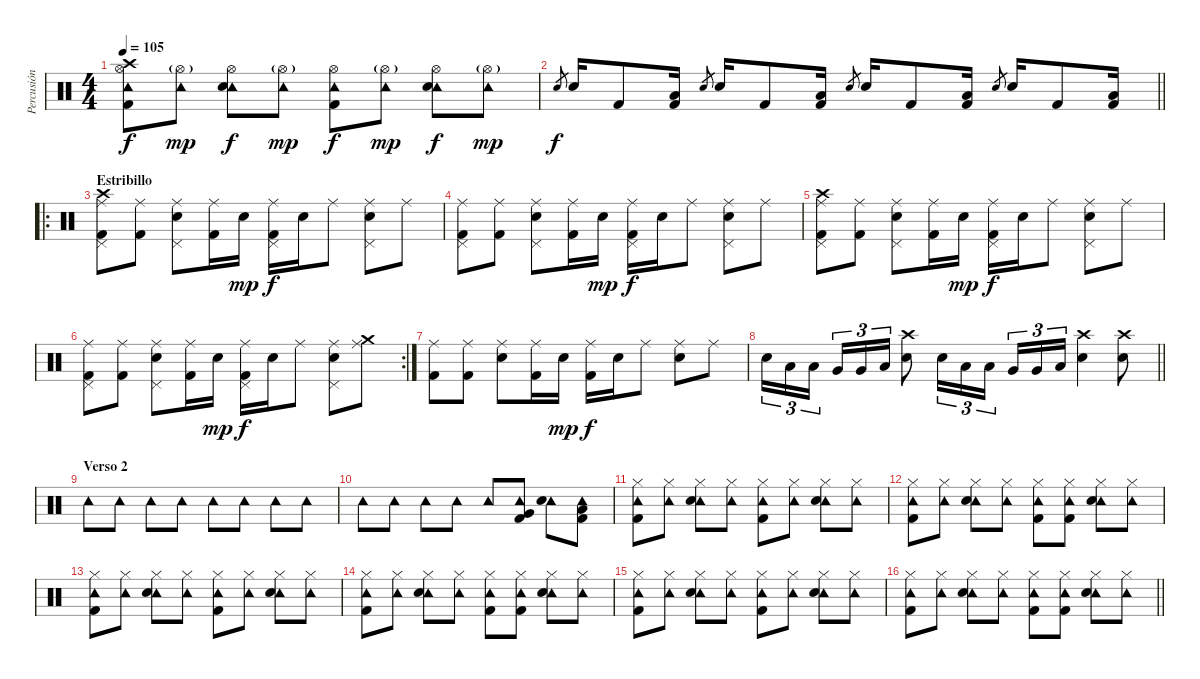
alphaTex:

\track ("Percusión" "Percusión") {instrument percussion}
\staff {score}
\articulation defaults
\ts (4 4)
\tempo 105
\clef neutral
\ks c
("Tambourine (hit)" "Crash high (hit)" "Hi-Hat (open)" "Kick (hit) 2").8{dy f} ("Tambourine (hit)" "Hi-Hat (open)"{g}).8{dy mp} ("Tambourine (hit)" "Hi-Hat (open)" "Electric Snare (hit)").8{dy f} ("Tambourine (hit)" "Hi-Hat (open)"{g}).8{dy mp} ("Tambourine (hit)" "Hi-Hat (open)" "Kick (hit) 2").8{dy f} ("Tambourine (hit)" "Hi-Hat (open)"{g}).8{dy mp} ("Tambourine (hit)" "Hi-Hat (open)" "Electric Snare (hit)").8{dy f} ("Tambourine (hit)" "Hi-Hat (open)"{g}).8{dy mp} |
\barLineRight lightlight "Electric Snare (hit)".8{gr dy f} "Electric Snare (hit)".16 "Kick (hit) 2".8
("Low Floor Tom (hit)" "Kick (hit) 2").16 "Electric Snare (hit)".8{gr} "Electric Snare (hit)".16 "Kick (hit) 2".8 ("Low Floor Tom (hit)" "Kick (hit) 2").16 "Electric Snare (hit)".8{gr} "Electric Snare (hit)".16 "Kick (hit) 2".8 ("Low Floor Tom (hit)" "Kick (hit) 2").16 "Electric Snare (hit)".8{gr} "Electric Snare (hit)".16 "Kick (hit) 2".8 ("Low Floor Tom (hit)" "Kick (hit) 2").16 |
\ro
\section ("" "Estribillo")
("Pedal Hi-Hat (hit)" "Crash high (hit)" "Ride (middle)" "Kick (hit) 2").8 ("Ride (middle)" "Kick (hit) 2").8 ("Pedal Hi-Hat (hit)" "Ride (middle)" "Electric Snare (hit)").8 ("Ride (middle)" "Kick (hit) 2").16 "Electric Snare (hit)".16{dy mp} ("Pedal Hi-Hat (hit)" "Ride (middle)" "Kick (hit) 2").16{dy f} "Electric Snare (hit)".16 "Ride (middle)".8 ("Pedal Hi-Hat (hit)" "Ride (middle)" "Electric Snare (hit)").8 "Ride (middle)".8 |
("Pedal Hi-Hat (hit)" "Ride (middle)" "Kick (hit) 2").8 ("Ride (middle)" "Kick (hit) 2").8 ("Pedal Hi-Hat (hit)" "Ride (middle)" "Electric Snare (hit)").8 ("Ride (middle)" "Kick (hit) 2").16 "Electric Snare (hit)".16{dy mp} ("Pedal Hi-Hat (hit)" "Ride (middle)" "Kick (hit) 2").16{dy f} "Electric Snare (hit)".16 "Ride (middle)".8 ("Pedal Hi-Hat (hit)" "Ride (middle)" "Electric Snare (hit)").8 "Ride (middle)".8 |
("Pedal Hi-Hat (hit)" "Crash high (hit)" "Ride (middle)" "Kick (hit) 2").8 ("Ride (middle)" "Kick (hit) 2").8 ("Pedal Hi-Hat (hit)" "Ride (middle)" "Electric Snare (hit)").8 ("Ride (middle)" "Kick (hit) 2").16 "Electric Snare (hit)".16{dy mp} ("Pedal Hi-Hat (hit)" "Ride (middle)" "Kick (hit) 2").16{dy f} "Electric Snare (hit)".16 "Ride (middle)".8 ("Pedal Hi-Hat (hit)" "Ride (middle)" "Electric Snare (hit)").8 "Ride (middle)".8 |
\rc 2
("Pedal Hi-Hat (hit)" "Ride (middle)" "Kick (hit) 2").8 ("Ride (middle)" "Kick (hit) 2").8 ("Pedal Hi-Hat (hit)" "Ride (middle)" "Electric Snare (hit)").8 ("Ride (middle)" "Kick (hit) 2").16 "Electric Snare (hit)".16{dy mp} ("Pedal Hi-Hat (hit)" "Ride (middle)" "Kick (hit) 2").16{dy f} "Electric Snare (hit)".16 "Ride (middle)".8 ("Pedal Hi-Hat (hit)" "Ride (middle)" "Electric Snare (hit)").8 ("Crash medium (hit)" "Ride (middle)").8 |
("Ride (middle)" "Kick (hit) 2").8 ("Ride (middle)" "Kick (hit) 2").8 ("Ride (middle)" "Electric Snare (hit)").8 ("Ride (middle)" "Kick (hit) 2").16 "Electric Snare (hit)".16{dy mp} ("Ride (middle)" "Kick (hit) 2").16{dy f} "Electric Snare (hit)".16 "Ride (middle)".8 ("Ride (middle)" "Electric Snare (hit)").8 "Ride (middle)".8 |
\barLineRight lightlight "Electric Snare (hit)".16{tu (3 2)} "Low Tom (hit)".16{tu (3 2)} "Low Tom (hit)".16{tu (3 2) beam splitsecondary} "Very Low Tom (hit)".16{tu (3 2)} "Very Low Tom (hit)".16{tu (3 2)} "Low Floor Tom (hit)".16{tu (3 2)}
("Crash high (hit)" "Electric Snare (hit)").8 "Electric Snare (hit)".16{tu (3 2)} "Low Tom (hit)".16{tu (3 2)} "Low Tom (hit)".16{tu (3 2)} "Very Low Tom (hit)".16{tu (3 2)} "Very Low Tom (hit)".16{tu (3 2)} "Low Floor Tom (hit)".16{tu (3 2)} ("Crash high (hit)" "Electric Snare (hit)").4 ("Crash high (hit)" "Electric Snare (hit)").8 |
\section ("" "Verso 2")
"Tambourine (hit)".8 "Tambourine (hit)".8 "Tambourine (hit)".8 "Tambourine (hit)".8 "Tambourine (hit)".8 "Tambourine (hit)".8 "Tambourine (hit)".8 "Tambourine (hit)".8 |
"Tambourine (hit)".8 "Tambourine (hit)".8 "Tambourine (hit)".8 "Tambourine (hit)".8 "Tambourine (hit)".8 ("Tambourine (hit)" "Very Low Tom (hit)" "Kick (hit) 2").8 ("Tambourine (hit)" "Electric Snare (hit)").8 ("Tambourine (hit)" "Low Floor Tom (hit)" "Kick (hit) 2").8 |
("Tambourine (hit)" "Hi-Hat (closed)" "Kick (hit) 2").8 ("Tambourine (hit)" "Hi-Hat (closed)").8 ("Tambourine (hit)" "Hi-Hat (closed)" "Electric Snare (hit)").8 ("Tambourine (hit)" "Hi-Hat (closed)").8 ("Tambourine (hit)" "Hi-Hat (closed)" "Kick (hit) 2").8 ("Tambourine (hit)" "Hi-Hat (closed)").8 ("Tambourine (hit)" "Hi-Hat (closed)" "Electric Snare (hit)").8 ("Tambourine (hit)" "Hi-Hat (closed)").8 |
("Tambourine (hit)" "Hi-Hat (closed)" "Kick (hit) 2").8 ("Tambourine (hit)" "Hi-Hat (closed)").8 ("Tambourine (hit)" "Hi-Hat (closed)" "Electric Snare (hit)").8 ("Tambourine (hit)" "Hi-Hat (closed)").8 ("Tambourine (hit)" "Hi-Hat (closed)" "Kick (hit) 2").8 ("Tambourine (hit)" "Hi-Hat (closed)" "Kick (hit) 2").8 ("Tambourine (hit)" "Hi-Hat (closed)" "Electric Snare (hit)").8 ("Tambourine (hit)" "Hi-Hat (closed)").8 |
("Tambourine (hit)" "Hi-Hat (closed)" "Kick (hit) 2").8 ("Tambourine (hit)" "Hi-Hat (closed)").8 ("Tambourine (hit)" "Hi-Hat (closed)" "Electric Snare (hit)").8 ("Tambourine (hit)" "Hi-Hat (closed)").8 ("Tambourine (hit)" "Hi-Hat (closed)" "Kick (hit) 2").8 ("Tambourine (hit)" "Hi-Hat (closed)").8 ("Tambourine (hit)" "Hi-Hat (closed)" "Electric Snare (hit)").8 ("Tambourine (hit)" "Hi-Hat (closed)").8 |
("Tambourine (hit)" "Hi-Hat (closed)" "Kick (hit) 2").8 ("Tambourine (hit)" "Hi-Hat (closed)").8 ("Tambourine (hit)" "Hi-Hat (closed)" "Electric Snare (hit)").8 ("Tambourine (hit)" "Hi-Hat (closed)").8 ("Tambourine (hit)" "Hi-Hat (closed)" "Kick (hit) 2").8 ("Tambourine (hit)" "Hi-Hat (closed)" "Kick (hit) 2").8 ("Tambourine (hit)" "Hi-Hat (closed)" "Electric Snare (hit)").8 ("Tambourine (hit)" "Hi-Hat (closed)").8 |
("Tambourine (hit)" "Hi-Hat (closed)" "Kick (hit) 2").8 ("Tambourine (hit)" "Hi-Hat (closed)").8 ("Tambourine (hit)" "Hi-Hat (closed)" "Electric Snare (hit)").8 ("Tambourine (hit)" "Hi-Hat (closed)").8 ("Tambourine (hit)" "Hi-Hat (closed)" "Kick (hit) 2").8 ("Tambourine (hit)" "Hi-Hat (closed)").8 ("Tambourine (hit)" "Hi-Hat (closed)" "Electric Snare (hit)").8 ("Tambourine (hit)" "Hi-Hat (closed)").8 |
\barLineRight lightlight
("Tambourine (hit)" "Hi-Hat (closed)" "Kick (hit) 2").8 ("Tambourine (hit)" "Hi-Hat (closed)").8 ("Tambourine (hit)" "Hi-Hat (closed)" "Electric Snare (hit)").8 ("Tambourine (hit)" "Hi-Hat (closed)").8 ("Tambourine (hit)" "Hi-Hat (closed)" "Kick (hit) 2").8 ("Tambourine (hit)" "Hi-Hat (closed)" "Kick (hit) 2").8 ("Tambourine (hit)" "Hi-Hat (closed)" "Electric Snare (hit)").8 ("Tambourine (hit)" "Hi-Hat (closed)").8
